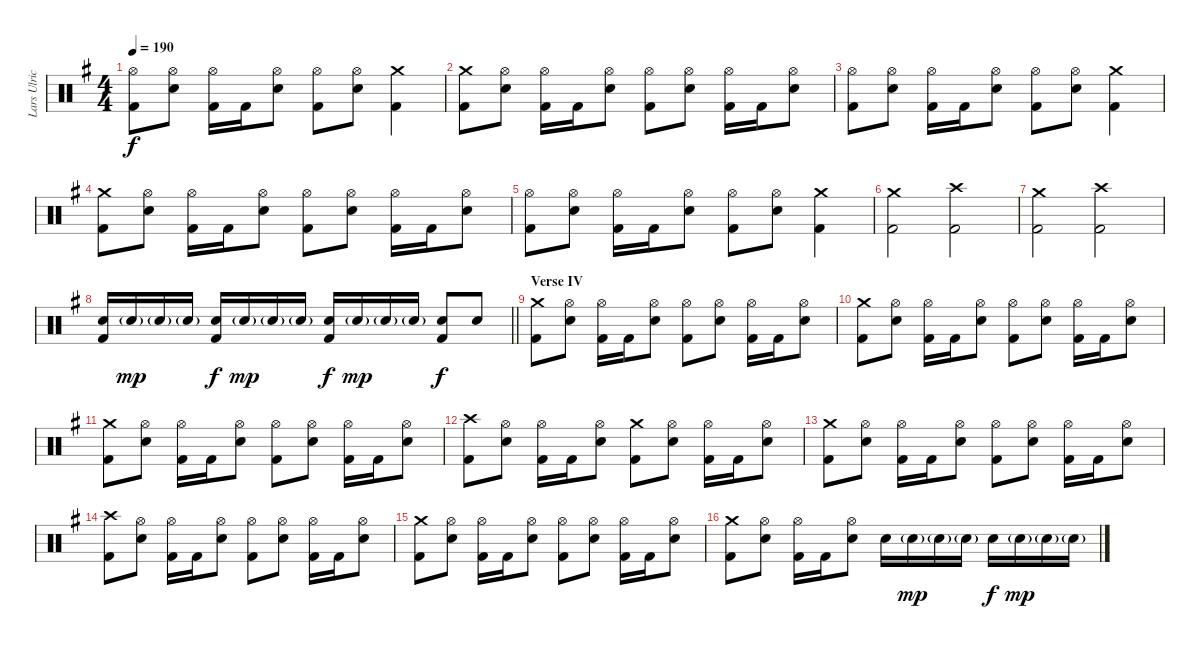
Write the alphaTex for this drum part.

\track ("Lars Ulrich - Drums" "Lars Ulric") {instrument percussion}
\staff {score}
\articulation defaults
\ts (4 4)
\tempo 190
\clef neutral
\ks eminor
("Hi-Hat (open)" "Kick (hit) 2").8{dy f} ("Hi-Hat (open)" "Snare (hit) 2").8 ("Hi-Hat (open)" "Kick (hit) 2").16 "Kick (hit) 2".16 ("Hi-Hat (open)" "Snare (hit) 2").8 ("Hi-Hat (open)" "Kick (hit) 2").8 ("Hi-Hat (open)" "Snare (hit) 2").8 ("Crash medium (hit)" "Kick (hit) 2").4 |
("Crash medium (hit)" "Kick (hit) 2").8 ("Hi-Hat (open)" "Snare (hit) 2").8 ("Hi-Hat (open)" "Kick (hit) 2").16 "Kick (hit) 2".16 ("Hi-Hat (open)" "Snare (hit) 2").8 ("Hi-Hat (open)" "Kick (hit) 2").8 ("Hi-Hat (open)" "Snare (hit) 2").8 ("Hi-Hat (open)" "Kick (hit) 2").16 "Kick (hit) 2".16 ("Hi-Hat (open)" "Snare (hit) 2").8 |
("Hi-Hat (open)" "Kick (hit) 2").8 ("Hi-Hat (open)" "Snare (hit) 2").8 ("Hi-Hat (open)" "Kick (hit) 2").16 "Kick (hit) 2".16 ("Hi-Hat (open)" "Snare (hit) 2").8 ("Hi-Hat (open)" "Kick (hit) 2").8 ("Hi-Hat (open)" "Snare (hit) 2").8 ("Crash medium (hit)" "Kick (hit) 2").4 |
("Crash medium (hit)" "Kick (hit) 2").8 ("Hi-Hat (open)" "Snare (hit) 2").8 ("Hi-Hat (open)" "Kick (hit) 2").16 "Kick (hit) 2".16 ("Hi-Hat (open)" "Snare (hit) 2").8 ("Hi-Hat (open)" "Kick (hit) 2").8 ("Hi-Hat (open)" "Snare (hit) 2").8 ("Hi-Hat (open)" "Kick (hit) 2").16 "Kick (hit) 2".16 ("Hi-Hat (open)" "Snare (hit) 2").8 |
("Hi-Hat (open)" "Kick (hit) 2").8 ("Hi-Hat (open)" "Snare (hit) 2").8 ("Hi-Hat (open)" "Kick (hit) 2").16 "Kick (hit) 2".16 ("Hi-Hat (open)" "Snare (hit) 2").8 ("Hi-Hat (open)" "Kick (hit) 2").8 ("Hi-Hat (open)" "Snare (hit) 2").8 ("Crash medium (hit)" "Kick (hit) 2").4 |
("Crash medium (hit)" "Kick (hit) 2").2 ("Crash high (hit)" "Kick (hit) 2").2 |
("Crash medium (hit)" "Kick (hit) 2").2 ("Crash high (hit)" "Kick (hit) 2").2 |
\barLineRight lightlight
("Snare (hit) 2" "Kick (hit) 2").16 "Snare (hit) 2"{g}.16{dy mp} "Snare (hit) 2"{g}.16 "Snare (hit) 2"{g}.16 ("Snare (hit) 2" "Kick (hit) 2").16{dy f} "Snare (hit) 2"{g}.16{dy mp} "Snare (hit) 2"{g}.16 "Snare (hit) 2"{g}.16 ("Snare (hit) 2" "Kick (hit) 2").16{dy f} "Snare (hit) 2"{g}.16{dy mp} "Snare (hit) 2"{g}.16 "Snare (hit) 2"{g}.16 ("Snare (hit) 2" "Kick (hit) 2").8{dy f} "Snare (hit) 2".8 |
\section ("" "Verse IV")
("Crash medium (hit)" "Kick (hit) 2").8 ("Hi-Hat (open)" "Snare (hit) 2").8 ("Hi-Hat (open)" "Kick (hit) 2").16 "Kick (hit) 2".16 ("Hi-Hat (open)" "Snare (hit) 2").8 ("Hi-Hat (open)" "Kick (hit) 2").8 ("Hi-Hat (open)" "Snare (hit) 2").8 ("Hi-Hat (open)" "Kick (hit) 2").16 "Kick (hit) 2".16 ("Hi-Hat (open)" "Snare (hit) 2").8 |
("Crash medium (hit)" "Kick (hit) 2").8 ("Hi-Hat (open)" "Snare (hit) 2").8 ("Hi-Hat (open)" "Kick (hit) 2").16 "Kick (hit) 2".16 ("Hi-Hat (open)" "Snare (hit) 2").8 ("Hi-Hat (open)" "Kick (hit) 2").8 ("Hi-Hat (open)" "Snare (hit) 2").8 ("Hi-Hat (open)" "Kick (hit) 2").16 "Kick (hit) 2".16 ("Hi-Hat (open)" "Snare (hit) 2").8 |
("Crash medium (hit)" "Kick (hit) 2").8 ("Hi-Hat (open)" "Snare (hit) 2").8 ("Hi-Hat (open)" "Kick (hit) 2").16 "Kick (hit) 2".16 ("Hi-Hat (open)" "Snare (hit) 2").8 ("Hi-Hat (open)" "Kick (hit) 2").8 ("Hi-Hat (open)" "Snare (hit) 2").8 ("Hi-Hat (open)" "Kick (hit) 2").16 "Kick (hit) 2".16 ("Hi-Hat (open)" "Snare (hit) 2").8 |
("Crash high (hit)" "Kick (hit) 2").8 ("Hi-Hat (open)" "Snare (hit) 2").8 ("Hi-Hat (open)" "Kick (hit) 2").16 "Kick (hit) 2".16 ("Hi-Hat (open)" "Snare (hit) 2").8 ("Crash medium (hit)" "Kick (hit) 2").8 ("Hi-Hat (open)" "Snare (hit) 2").8 ("Hi-Hat (open)" "Kick (hit) 2").16 "Kick (hit) 2".16 ("Hi-Hat (open)" "Snare (hit) 2").8 |
("Crash medium (hit)" "Kick (hit) 2").8 ("Hi-Hat (open)" "Snare (hit) 2").8 ("Hi-Hat (open)" "Kick (hit) 2").16 "Kick (hit) 2".16 ("Hi-Hat (open)" "Snare (hit) 2").8 ("Hi-Hat (open)" "Kick (hit) 2").8 ("Hi-Hat (open)" "Snare (hit) 2").8 ("Hi-Hat (open)" "Kick (hit) 2").16 "Kick (hit) 2".16 ("Hi-Hat (open)" "Snare (hit) 2").8 |
("Crash high (hit)" "Kick (hit) 2").8 ("Hi-Hat (open)" "Snare (hit) 2").8 ("Hi-Hat (open)" "Kick (hit) 2").16 "Kick (hit) 2".16 ("Hi-Hat (open)" "Snare (hit) 2").8 ("Hi-Hat (open)" "Kick (hit) 2").8 ("Hi-Hat (open)" "Snare (hit) 2").8 ("Hi-Hat (open)" "Kick (hit) 2").16 "Kick (hit) 2".16 ("Hi-Hat (open)" "Snare (hit) 2").8 |
("Crash medium (hit)" "Kick (hit) 2").8 ("Hi-Hat (open)" "Snare (hit) 2").8 ("Hi-Hat (open)" "Kick (hit) 2").16 "Kick (hit) 2".16 ("Hi-Hat (open)" "Snare (hit) 2").8 ("Hi-Hat (open)" "Kick (hit) 2").8 ("Hi-Hat (open)" "Snare (hit) 2").8 ("Hi-Hat (open)" "Kick (hit) 2").16 "Kick (hit) 2".16 ("Hi-Hat (open)" "Snare (hit) 2").8 |
("Crash medium (hit)" "Kick (hit) 2").8 ("Hi-Hat (open)" "Snare (hit) 2").8 ("Hi-Hat (open)" "Kick (hit) 2").16 "Kick (hit) 2".16 ("Hi-Hat (open)" "Snare (hit) 2").8 "Snare (hit) 2".16 "Snare (hit) 2"{g}.16{dy mp} "Snare (hit) 2"{g}.16 "Snare (hit) 2"{g}.16 "Snare (hit) 2".16{dy f} "Snare (hit) 2"{g}.16{dy mp} "Snare (hit) 2"{g}.16 "Snare (hit) 2"{g}.16
